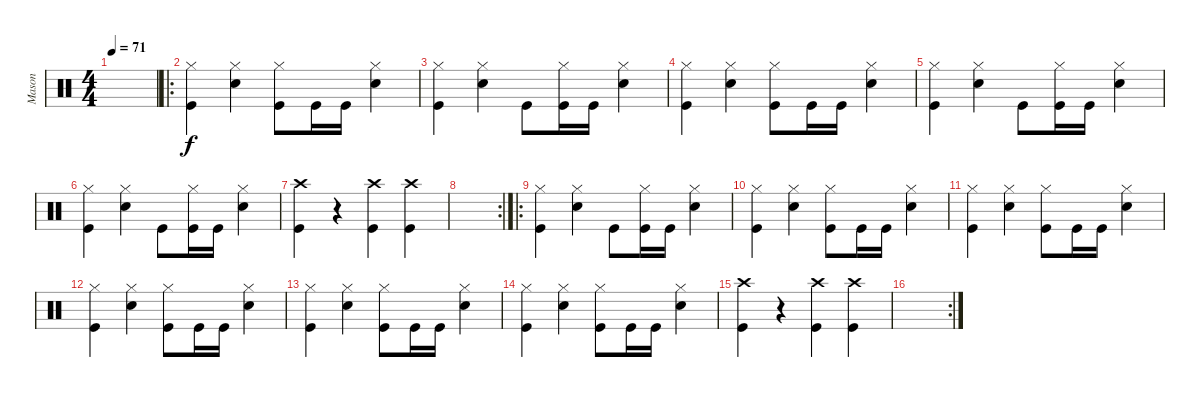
\track ("Mason" "Mason") {instrument percussion}
\staff {score}
\articulation defaults
\ts (4 4)
\tempo 71
\clef neutral
\ks c
|
\ro
("Kick (hit)" "Hi-Hat (closed)").4 ("Snare (hit) 2" "Hi-Hat (closed)").4 ("Kick (hit)" "Hi-Hat (closed)").8 "Kick (hit)".16 "Kick (hit)".16 ("Snare (hit) 2" "Hi-Hat (closed)").4 |
("Kick (hit)" "Hi-Hat (closed)").4 ("Snare (hit) 2" "Hi-Hat (closed)").4 "Kick (hit)".8 ("Kick (hit)" "Hi-Hat (closed)").16 "Kick (hit)".16 ("Snare (hit) 2" "Hi-Hat (closed)").4 |
("Kick (hit)" "Hi-Hat (closed)").4 ("Snare (hit) 2" "Hi-Hat (closed)").4 ("Kick (hit)" "Hi-Hat (closed)").8 "Kick (hit)".16 "Kick (hit)".16 ("Snare (hit) 2" "Hi-Hat (closed)").4 |
("Kick (hit)" "Hi-Hat (closed)").4 ("Snare (hit) 2" "Hi-Hat (closed)").4 "Kick (hit)".8 ("Kick (hit)" "Hi-Hat (closed)").16 "Kick (hit)".16 ("Snare (hit) 2" "Hi-Hat (closed)").4 |
("Kick (hit)" "Hi-Hat (closed)").4 ("Snare (hit) 2" "Hi-Hat (closed)").4 "Kick (hit)".8 ("Kick (hit)" "Hi-Hat (closed)").16 "Kick (hit)".16 ("Snare (hit) 2" "Hi-Hat (closed)").4 |
("Kick (hit)" "Crash high (hit)").4 r.4 ("Kick (hit)" "Crash high (hit)").4 ("Kick (hit)" "Crash high (hit)").4 |
\rc 2
|
\ro
("Kick (hit)" "Hi-Hat (closed)").4 ("Snare (hit) 2" "Hi-Hat (closed)").4 "Kick (hit)".8 ("Kick (hit)" "Hi-Hat (closed)").16 "Kick (hit)".16 ("Snare (hit) 2" "Hi-Hat (closed)").4 |
("Kick (hit)" "Hi-Hat (closed)").4 ("Snare (hit) 2" "Hi-Hat (closed)").4 ("Kick (hit)" "Hi-Hat (closed)").8 "Kick (hit)".16 "Kick (hit)".16 ("Snare (hit) 2" "Hi-Hat (closed)").4 |
("Kick (hit)" "Hi-Hat (closed)").4 ("Snare (hit) 2" "Hi-Hat (closed)").4 ("Kick (hit)" "Hi-Hat (closed)").8 "Kick (hit)".16 "Kick (hit)".16 ("Snare (hit) 2" "Hi-Hat (closed)").4 |
("Kick (hit)" "Hi-Hat (closed)").4 ("Snare (hit) 2" "Hi-Hat (closed)").4 ("Kick (hit)" "Hi-Hat (closed)").8 "Kick (hit)".16 "Kick (hit)".16 ("Snare (hit) 2" "Hi-Hat (closed)").4 |
("Kick (hit)" "Hi-Hat (closed)").4 ("Snare (hit) 2" "Hi-Hat (closed)").4 ("Kick (hit)" "Hi-Hat (closed)").8 "Kick (hit)".16 "Kick (hit)".16 ("Snare (hit) 2" "Hi-Hat (closed)").4 |
("Kick (hit)" "Hi-Hat (closed)").4 ("Snare (hit) 2" "Hi-Hat (closed)").4 ("Kick (hit)" "Hi-Hat (closed)").8 "Kick (hit)".16 "Kick (hit)".16 ("Snare (hit) 2" "Hi-Hat (closed)").4 |
("Kick (hit)" "Crash high (hit)").4 r.4 ("Kick (hit)" "Crash high (hit)").4 ("Kick (hit)" "Crash high (hit)").4 |
\rc 2
